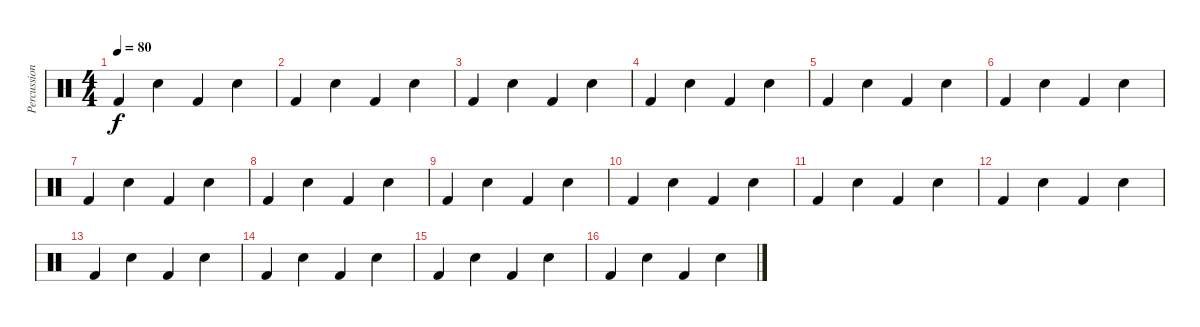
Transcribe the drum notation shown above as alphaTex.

\track ("Percussion" "Percussion") {instrument percussion}
\staff {score}
\articulation defaults
\ts (4 4)
\tempo 80
\clef neutral
\ks c "Kick (hit) 2".4{dy f} "Snare (hit) 2".4 "Kick (hit) 2".4 "Snare (hit) 2".4
|
"Kick (hit) 2".4 "Snare (hit) 2".4 "Kick (hit) 2".4 "Snare (hit) 2".4 |
"Kick (hit) 2".4 "Snare (hit) 2".4 "Kick (hit) 2".4 "Snare (hit) 2".4 |
"Kick (hit) 2".4 "Snare (hit) 2".4 "Kick (hit) 2".4 "Snare (hit) 2".4 |
"Kick (hit) 2".4 "Snare (hit) 2".4 "Kick (hit) 2".4 "Snare (hit) 2".4 |
"Kick (hit) 2".4 "Snare (hit) 2".4 "Kick (hit) 2".4 "Snare (hit) 2".4 |
"Kick (hit) 2".4 "Snare (hit) 2".4 "Kick (hit) 2".4 "Snare (hit) 2".4 |
"Kick (hit) 2".4 "Snare (hit) 2".4 "Kick (hit) 2".4 "Snare (hit) 2".4 |
"Kick (hit) 2".4 "Snare (hit) 2".4 "Kick (hit) 2".4 "Snare (hit) 2".4 |
"Kick (hit) 2".4 "Snare (hit) 2".4 "Kick (hit) 2".4 "Snare (hit) 2".4 |
"Kick (hit) 2".4 "Snare (hit) 2".4 "Kick (hit) 2".4 "Snare (hit) 2".4 |
"Kick (hit) 2".4 "Snare (hit) 2".4 "Kick (hit) 2".4 "Snare (hit) 2".4 |
"Kick (hit) 2".4 "Snare (hit) 2".4 "Kick (hit) 2".4 "Snare (hit) 2".4 |
"Kick (hit) 2".4 "Snare (hit) 2".4 "Kick (hit) 2".4 "Snare (hit) 2".4 |
"Kick (hit) 2".4 "Snare (hit) 2".4 "Kick (hit) 2".4 "Snare (hit) 2".4 |
"Kick (hit) 2".4 "Snare (hit) 2".4 "Kick (hit) 2".4 "Snare (hit) 2".4
